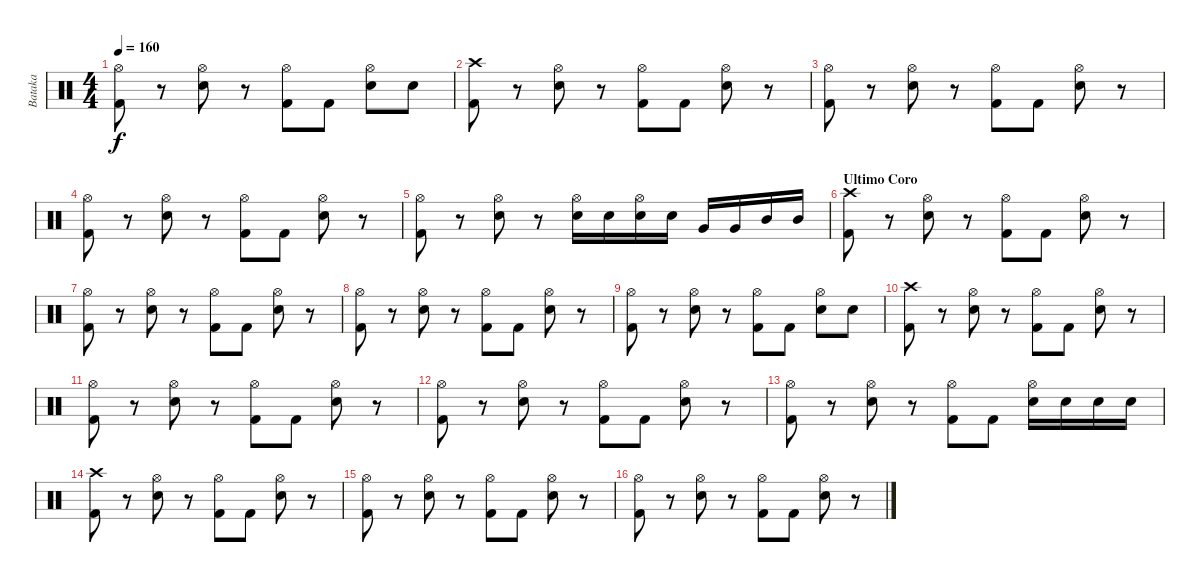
\track ("Bataka" "Bataka") {instrument percussion}
\staff {score}
\articulation defaults
\ts (4 4)
\tempo 160
\clef neutral
\ks c
("Hi-Hat (open)" "Kick (hit) 2").8{dy f} r.8 ("Hi-Hat (open)" "Snare (hit) 2").8 r.8 ("Hi-Hat (open)" "Kick (hit) 2").8 "Kick (hit) 2".8 ("Hi-Hat (open)" "Snare (hit) 2").8 "Snare (hit) 2".8 |
("Crash high (hit)" "Kick (hit) 2").8 r.8 ("Hi-Hat (open)" "Snare (hit) 2").8 r.8 ("Hi-Hat (open)" "Kick (hit) 2").8 "Kick (hit) 2".8 ("Hi-Hat (open)" "Snare (hit) 2").8 r.8 |
("Hi-Hat (open)" "Kick (hit) 2").8 r.8 ("Hi-Hat (open)" "Snare (hit) 2").8 r.8 ("Hi-Hat (open)" "Kick (hit) 2").8 "Kick (hit) 2".8 ("Hi-Hat (open)" "Snare (hit) 2").8 r.8 |
("Hi-Hat (open)" "Kick (hit) 2").8 r.8 ("Hi-Hat (open)" "Snare (hit) 2").8 r.8 ("Hi-Hat (open)" "Kick (hit) 2").8 "Kick (hit) 2".8 ("Hi-Hat (open)" "Snare (hit) 2").8 r.8 |
("Hi-Hat (open)" "Kick (hit) 2").8 r.8 ("Hi-Hat (open)" "Snare (hit) 2").8 r.8 ("Hi-Hat (open)" "Snare (hit) 2").16 "Snare (hit) 2".16 ("Hi-Hat (open)" "Snare (hit) 2").16 "Snare (hit) 2".16 "Very Low Tom (hit)".16 "Very Low Tom (hit)".16 "Mid Tom (hit)".16 "Mid Tom (hit)".16 |
\section ("" "Ultimo Coro")
("Crash high (hit)" "Kick (hit) 2").8 r.8 ("Hi-Hat (open)" "Snare (hit) 2").8 r.8 ("Hi-Hat (open)" "Kick (hit) 2").8 "Kick (hit) 2".8 ("Hi-Hat (open)" "Snare (hit) 2").8 r.8 |
("Hi-Hat (open)" "Kick (hit) 2").8 r.8 ("Hi-Hat (open)" "Snare (hit) 2").8 r.8 ("Hi-Hat (open)" "Kick (hit) 2").8 "Kick (hit) 2".8 ("Hi-Hat (open)" "Snare (hit) 2").8 r.8 |
("Hi-Hat (open)" "Kick (hit) 2").8 r.8 ("Hi-Hat (open)" "Snare (hit) 2").8 r.8 ("Hi-Hat (open)" "Kick (hit) 2").8 "Kick (hit) 2".8 ("Hi-Hat (open)" "Snare (hit) 2").8 r.8 |
("Hi-Hat (open)" "Kick (hit) 2").8 r.8 ("Hi-Hat (open)" "Snare (hit) 2").8 r.8 ("Hi-Hat (open)" "Kick (hit) 2").8 "Kick (hit) 2".8 ("Hi-Hat (open)" "Snare (hit) 2").8 "Snare (hit) 2".8 |
("Crash high (hit)" "Kick (hit) 2").8 r.8 ("Hi-Hat (open)" "Snare (hit) 2").8 r.8 ("Hi-Hat (open)" "Kick (hit) 2").8 "Kick (hit) 2".8 ("Hi-Hat (open)" "Snare (hit) 2").8 r.8 |
("Hi-Hat (open)" "Kick (hit) 2").8 r.8 ("Hi-Hat (open)" "Snare (hit) 2").8 r.8 ("Hi-Hat (open)" "Kick (hit) 2").8 "Kick (hit) 2".8 ("Hi-Hat (open)" "Snare (hit) 2").8 r.8 |
("Hi-Hat (open)" "Kick (hit) 2").8 r.8 ("Hi-Hat (open)" "Snare (hit) 2").8 r.8 ("Hi-Hat (open)" "Kick (hit) 2").8 "Kick (hit) 2".8 ("Hi-Hat (open)" "Snare (hit) 2").8 r.8 |
("Hi-Hat (open)" "Kick (hit) 2").8 r.8 ("Hi-Hat (open)" "Snare (hit) 2").8 r.8 ("Hi-Hat (open)" "Kick (hit) 2").8 "Kick (hit) 2".8 ("Hi-Hat (open)" "Snare (hit) 2").16 "Snare (hit) 2".16 "Snare (hit) 2".16 "Snare (hit) 2".16 |
("Crash high (hit)" "Kick (hit) 2").8 r.8 ("Hi-Hat (open)" "Snare (hit) 2").8 r.8 ("Hi-Hat (open)" "Kick (hit) 2").8 "Kick (hit) 2".8 ("Hi-Hat (open)" "Snare (hit) 2").8 r.8 |
("Hi-Hat (open)" "Kick (hit) 2").8 r.8 ("Hi-Hat (open)" "Snare (hit) 2").8 r.8 ("Hi-Hat (open)" "Kick (hit) 2").8 "Kick (hit) 2".8 ("Hi-Hat (open)" "Snare (hit) 2").8 r.8 |
("Hi-Hat (open)" "Kick (hit) 2").8 r.8 ("Hi-Hat (open)" "Snare (hit) 2").8 r.8 ("Hi-Hat (open)" "Kick (hit) 2").8 "Kick (hit) 2".8 ("Hi-Hat (open)" "Snare (hit) 2").8 r.8
